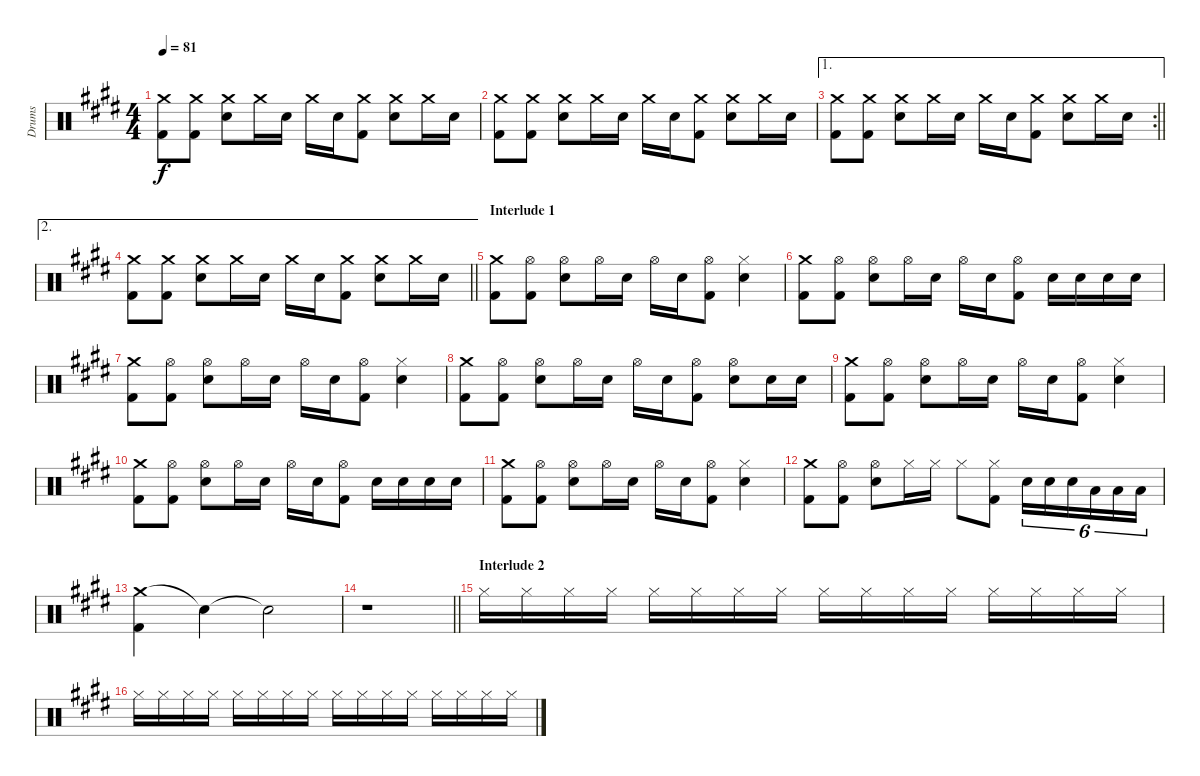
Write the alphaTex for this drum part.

\track ("Drums" "Drums") {instrument percussion}
\staff {score}
\articulation defaults
\ts (4 4)
\tempo 81
\clef neutral
\ks c#minor
("Crash medium (hit)" "Kick (hit) 2").8{dy f} ("Crash medium (hit)" "Kick (hit) 2").8 ("Crash medium (hit)" "Electric Snare (hit)").8 "Crash medium (hit)".16 "Electric Snare (hit)".16 "Crash medium (hit)".16 "Electric Snare (hit)".16 ("Crash medium (hit)" "Kick (hit) 2").8 ("Crash medium (hit)" "Electric Snare (hit)").8 "Crash medium (hit)".16 "Electric Snare (hit)".16 |
("Crash medium (hit)" "Kick (hit) 2").8 ("Crash medium (hit)" "Kick (hit) 2").8 ("Crash medium (hit)" "Electric Snare (hit)").8 "Crash medium (hit)".16 "Electric Snare (hit)".16 "Crash medium (hit)".16 "Electric Snare (hit)".16 ("Crash medium (hit)" "Kick (hit) 2").8 ("Crash medium (hit)" "Electric Snare (hit)").8 "Crash medium (hit)".16 "Electric Snare (hit)".16 |
\ae 1
\rc 2
\barLineRight lightlight
("Crash medium (hit)" "Kick (hit) 2").8 ("Crash medium (hit)" "Kick (hit) 2").8 ("Crash medium (hit)" "Electric Snare (hit)").8 "Crash medium (hit)".16 "Electric Snare (hit)".16 "Crash medium (hit)".16 "Electric Snare (hit)".16 ("Crash medium (hit)" "Kick (hit) 2").8 ("Crash medium (hit)" "Electric Snare (hit)").8 "Crash medium (hit)".16 "Electric Snare (hit)".16 |
\ae 2
\barLineRight lightlight
("Crash medium (hit)" "Kick (hit) 2").8 ("Crash medium (hit)" "Kick (hit) 2").8 ("Crash medium (hit)" "Electric Snare (hit)").8 "Crash medium (hit)".16 "Electric Snare (hit)".16 "Crash medium (hit)".16 "Electric Snare (hit)".16 ("Crash medium (hit)" "Kick (hit) 2").8 ("Crash medium (hit)" "Electric Snare (hit)").8 "Crash medium (hit)".16 "Electric Snare (hit)".16 |
\section ("" "Interlude 1")
("Crash medium (hit)" "Kick (hit) 2").8 ("Hi-Hat (open)" "Kick (hit) 2").8 ("Hi-Hat (open)" "Electric Snare (hit)").8 "Hi-Hat (open)".16 "Electric Snare (hit)".16 "Hi-Hat (open)".16 "Electric Snare (hit)".16 ("Hi-Hat (open)" "Kick (hit) 2").8 ("Hi-Hat (closed)" "Electric Snare (hit)").4 |
("Crash medium (hit)" "Kick (hit) 2").8 ("Hi-Hat (open)" "Kick (hit) 2").8 ("Hi-Hat (open)" "Electric Snare (hit)").8 "Hi-Hat (open)".16 "Electric Snare (hit)".16 "Hi-Hat (open)".16 "Electric Snare (hit)".16 ("Hi-Hat (open)" "Kick (hit) 2").8 "Electric Snare (hit)".16 "Electric Snare (hit)".16 "Electric Snare (hit)".16 "Electric Snare (hit)".16 |
("Crash medium (hit)" "Kick (hit) 2").8 ("Hi-Hat (open)" "Kick (hit) 2").8 ("Hi-Hat (open)" "Electric Snare (hit)").8 "Hi-Hat (open)".16 "Electric Snare (hit)".16 "Hi-Hat (open)".16 "Electric Snare (hit)".16 ("Hi-Hat (open)" "Kick (hit) 2").8 ("Hi-Hat (closed)" "Electric Snare (hit)").4 |
("Crash medium (hit)" "Kick (hit) 2").8 ("Hi-Hat (open)" "Kick (hit) 2").8 ("Hi-Hat (open)" "Electric Snare (hit)").8 "Hi-Hat (open)".16 "Electric Snare (hit)".16 "Hi-Hat (open)".16 "Electric Snare (hit)".16 ("Hi-Hat (open)" "Kick (hit) 2").8 ("Hi-Hat (open)" "Electric Snare (hit)").8 "Electric Snare (hit)".16 "Electric Snare (hit)".16 |
("Crash medium (hit)" "Kick (hit) 2").8 ("Hi-Hat (open)" "Kick (hit) 2").8 ("Hi-Hat (open)" "Electric Snare (hit)").8 "Hi-Hat (open)".16 "Electric Snare (hit)".16 "Hi-Hat (open)".16 "Electric Snare (hit)".16 ("Hi-Hat (open)" "Kick (hit) 2").8 ("Hi-Hat (closed)" "Electric Snare (hit)").4 |
("Crash medium (hit)" "Kick (hit) 2").8 ("Hi-Hat (open)" "Kick (hit) 2").8 ("Hi-Hat (open)" "Electric Snare (hit)").8 "Hi-Hat (open)".16 "Electric Snare (hit)".16 "Hi-Hat (open)".16 "Electric Snare (hit)".16 ("Hi-Hat (open)" "Kick (hit) 2").8 "Electric Snare (hit)".16 "Electric Snare (hit)".16 "Electric Snare (hit)".16 "Electric Snare (hit)".16 |
("Crash medium (hit)" "Kick (hit) 2").8 ("Hi-Hat (open)" "Kick (hit) 2").8 ("Hi-Hat (open)" "Electric Snare (hit)").8 "Hi-Hat (open)".16 "Electric Snare (hit)".16 "Hi-Hat (open)".16 "Electric Snare (hit)".16 ("Hi-Hat (open)" "Kick (hit) 2").8 ("Hi-Hat (closed)" "Electric Snare (hit)").4 |
("Crash medium (hit)" "Kick (hit) 2").8 ("Hi-Hat (open)" "Kick (hit) 2").8 ("Hi-Hat (open)" "Electric Snare (hit)").8 "Hi-Hat (closed)".16 "Hi-Hat (closed)".16 "Hi-Hat (closed)".8 ("Hi-Hat (closed)" "Kick (hit) 2").8 "Electric Snare (hit)".16{tu (6 4)} "Electric Snare (hit)".16{tu (6 4)} "Electric Snare (hit)".16{tu (6 4)} "Low Tom (hit)".16{tu (6 4)} "Low Tom (hit)".16{tu (6 4)} "Low Tom (hit)".16{tu (6 4)} |
("Crash medium (hit)" "Kick (hit) 2").4 "Snare (hit)"{t}.4 "Snare (hit)"{t}.2 |
\barLineRight lightlight
r.1 |
\section ("" "Interlude 2")
"Hi-Hat (closed)".16 "Hi-Hat (closed)".16 "Hi-Hat (closed)".16 "Hi-Hat (closed)".16 "Hi-Hat (closed)".16 "Hi-Hat (closed)".16 "Hi-Hat (closed)".16 "Hi-Hat (closed)".16 "Hi-Hat (closed)".16 "Hi-Hat (closed)".16 "Hi-Hat (closed)".16 "Hi-Hat (closed)".16 "Hi-Hat (closed)".16 "Hi-Hat (closed)".16 "Hi-Hat (closed)".16 "Hi-Hat (closed)".16 |
"Hi-Hat (closed)".16 "Hi-Hat (closed)".16 "Hi-Hat (closed)".16 "Hi-Hat (closed)".16 "Hi-Hat (closed)".16 "Hi-Hat (closed)".16 "Hi-Hat (closed)".16 "Hi-Hat (closed)".16 "Hi-Hat (closed)".16 "Hi-Hat (closed)".16 "Hi-Hat (closed)".16 "Hi-Hat (closed)".16 "Hi-Hat (closed)".16 "Hi-Hat (closed)".16 "Hi-Hat (closed)".16 "Hi-Hat (closed)".16
